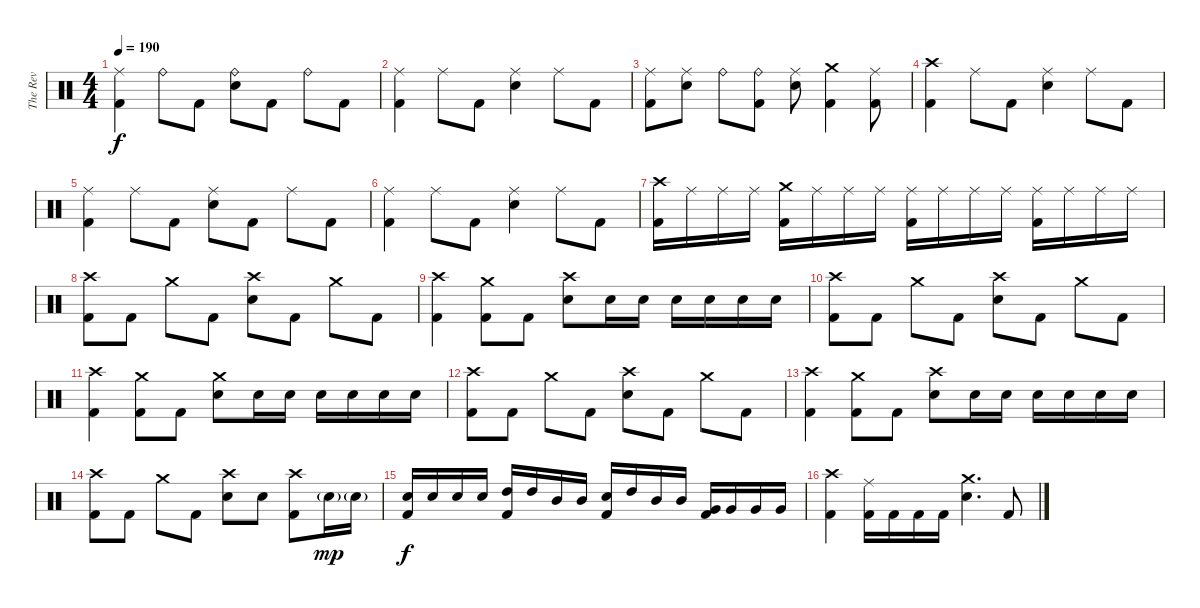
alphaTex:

\track ("The Rev" "The Rev") {instrument percussion}
\staff {score}
\articulation defaults
\ts (4 4)
\tempo 190
\clef neutral
\ks c
("Ride (middle)" "Kick (hit) 2").4{dy f} "Ride (bell)".8 "Kick (hit) 2".8 ("Ride (bell)" "Electric Snare (hit)").8 "Kick (hit) 2".8 "Ride (bell)".8 "Kick (hit) 2".8 |
("Ride (middle)" "Kick (hit) 2").4 "Ride (middle)".8 "Kick (hit) 2".8 ("Ride (middle)" "Electric Snare (hit)").4 "Ride (middle)".8 "Kick (hit) 2".8 |
("Ride (middle)" "Kick (hit) 2").8 ("Ride (middle)" "Electric Snare (hit)").8 "Ride (bell)".8 ("Ride (bell)" "Kick (hit) 2").8 ("Ride (middle)" "Electric Snare (hit)").8 ("Crash medium (hit)" "Kick (hit) 2").4 ("Ride (middle)" "Kick (hit) 2").8 |
("Crash high (hit)" "Kick (hit) 2").4 "Ride (middle)".8 "Kick (hit) 2".8 ("Ride (middle)" "Electric Snare (hit)").4 "Ride (middle)".8 "Kick (hit) 2".8 |
("Ride (middle)" "Kick (hit) 2").4 "Ride (middle)".8 "Kick (hit) 2".8 ("Ride (middle)" "Electric Snare (hit)").8 "Kick (hit) 2".8 "Ride (middle)".8 "Kick (hit) 2".8 |
("Ride (middle)" "Kick (hit) 2").4 "Ride (middle)".8 "Kick (hit) 2".8 ("Ride (middle)" "Electric Snare (hit)").4 "Ride (middle)".8 "Kick (hit) 2".8 |
("Crash high (hit)" "Kick (hit) 2").16 "Ride (middle)".16 "Ride (middle)".16 "Ride (middle)".16 ("Crash medium (hit)" "Kick (hit) 2").16 "Ride (middle)".16 "Ride (middle)".16 "Ride (middle)".16 ("Ride (middle)" "Kick (hit) 2").16 "Ride (middle)".16 "Ride (middle)".16 "Ride (middle)".16 ("Ride (middle)" "Kick (hit) 2").16 "Ride (middle)".16 "Ride (middle)".16 "Ride (middle)".16 |
("Crash high (hit)" "Kick (hit) 2").8 "Kick (hit) 2".8 "Crash medium (hit)".8 "Kick (hit) 2".8 ("Crash high (hit)" "Electric Snare (hit)").8 "Kick (hit) 2".8 "Crash medium (hit)".8 "Kick (hit) 2".8 |
("Crash high (hit)" "Kick (hit) 2").4 ("Crash medium (hit)" "Kick (hit) 2").8 "Kick (hit) 2".8 ("Crash high (hit)" "Electric Snare (hit)").8 "Electric Snare (hit)".16 "Electric Snare (hit)".16 "Electric Snare (hit)".16 "Electric Snare (hit)".16 "Electric Snare (hit)".16 "Electric Snare (hit)".16 |
("Crash high (hit)" "Kick (hit) 2").8 "Kick (hit) 2".8 "Crash medium (hit)".8 "Kick (hit) 2".8 ("Crash high (hit)" "Electric Snare (hit)").8 "Kick (hit) 2".8 "Crash medium (hit)".8 "Kick (hit) 2".8 |
("Crash high (hit)" "Kick (hit) 2").4 ("Crash medium (hit)" "Kick (hit) 2").8 "Kick (hit) 2".8 ("Crash medium (hit)" "Electric Snare (hit)").8 "Electric Snare (hit)".16 "Electric Snare (hit)".16 "Electric Snare (hit)".16 "Electric Snare (hit)".16 "Electric Snare (hit)".16 "Electric Snare (hit)".16 |
("Crash high (hit)" "Kick (hit) 2").8 "Kick (hit) 2".8 "Crash medium (hit)".8 "Kick (hit) 2".8 ("Crash high (hit)" "Electric Snare (hit)").8 "Kick (hit) 2".8 "Crash medium (hit)".8 "Kick (hit) 2".8 |
("Crash high (hit)" "Kick (hit) 2").4 ("Crash medium (hit)" "Kick (hit) 2").8 "Kick (hit) 2".8 ("Crash high (hit)" "Electric Snare (hit)").8 "Electric Snare (hit)".16 "Electric Snare (hit)".16 "Electric Snare (hit)".16 "Electric Snare (hit)".16 "Electric Snare (hit)".16 "Electric Snare (hit)".16 |
("Crash high (hit)" "Kick (hit) 2").8 "Kick (hit) 2".8 "Crash medium (hit)".8 "Kick (hit) 2".8 ("Crash high (hit)" "Electric Snare (hit)").8 "Electric Snare (hit)".8 ("Crash high (hit)" "Kick (hit) 2").8 "Electric Snare (hit)"{g}.16{dy mp} "Electric Snare (hit)"{g}.16 |
("Electric Snare (hit)" "Kick (hit) 2").16{dy f} "Electric Snare (hit)".16 "Electric Snare (hit)".16 "Electric Snare (hit)".16 ("High Tom (hit)" "Kick (hit) 2").16 "High Tom (hit)".16 "Mid Tom (hit)".16 "Mid Tom (hit)".16 ("Electric Snare (hit)" "Kick (hit) 2").16 "High Tom (hit)".16 "Mid Tom (hit)".16 "Mid Tom (hit)".16 ("Very Low Tom (hit)" "Kick (hit) 2").16 "Very Low Tom (hit)".16 "Very Low Tom (hit)".16 "Very Low Tom (hit)".16 |
("Crash high (hit)" "Kick (hit) 2").4 ("Ride (middle)" "Kick (hit) 2").16 "Kick (hit) 2".16 "Kick (hit) 2".16 "Kick (hit) 2".16 ("Crash medium (hit)" "Electric Snare (hit)").4{d} "Kick (hit) 2".8
